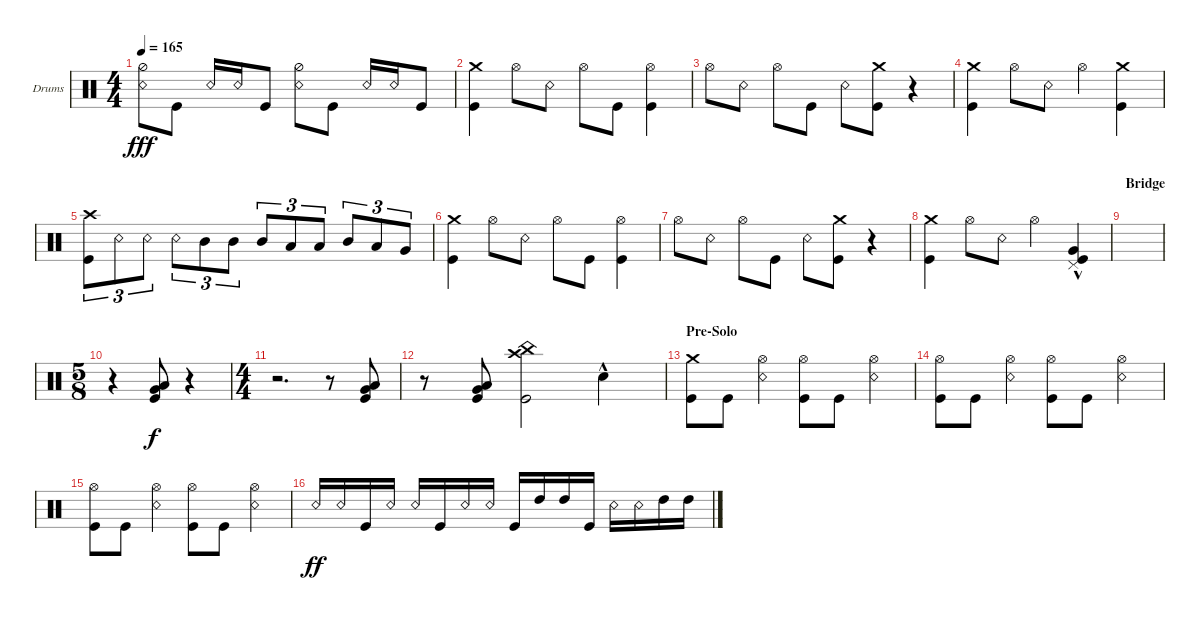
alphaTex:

\defaultSystemsLayout 4
\bracketExtendMode groupsimilarinstruments
\firstSystemTrackNameOrientation horizontal
\otherSystemsTrackNameOrientation horizontal
\track ("Drums" "Drums") {instrument percussion}
\staff {score}
\articulation defaults
\ts (4 4)
\tempo 165
\clef neutral
\ks c
("Hi-Hat (half)" "Snare (rim shot)").8{dy fff} "Kick (hit)".8 "Snare (rim shot)".16 "Snare (rim shot)".16 "Kick (hit)".8 ("Hi-Hat (half)" "Snare (rim shot)").8 "Kick (hit)".8 "Snare (rim shot)".16 "Snare (rim shot)".16 "Kick (hit)".8 |
("Kick (hit)" "Crash medium (hit)").4 "Hi-Hat (open)".8 "Snare (rim shot)".8 "Hi-Hat (open)".8 "Kick (hit)".8 ("Kick (hit)" "Hi-Hat (open)").4 |
"Hi-Hat (open)".8 "Snare (rim shot)".8 "Hi-Hat (open)".8 "Kick (hit)".8 "Snare (rim shot)".8 ("Crash medium (hit)" "Kick (hit)").8 r.4 |
("Kick (hit)" "Crash medium (hit)").4 "Hi-Hat (open)".8 "Snare (rim shot)".8 "Hi-Hat (open)".4 ("Kick (hit)" "Crash medium (hit)").4 |
("Crash high (hit)" "Kick (hit)").8{tu (3 2)} "Snare (rim shot)".8{tu (3 2)} "Snare (rim shot)".8{tu (3 2)} "Snare (rim shot)".8{tu (3 2)} "Mid Tom (hit)".8{tu (3 2)} "Mid Tom (hit)".8{tu (3 2)} "Mid Tom (hit)".8{tu (3 2)} "Low Tom (hit)".8{tu (3 2)} "Low Tom (hit)".8{tu (3 2)} "Mid Tom (hit)".8{tu (3 2)} "Low Tom (hit)".8{tu (3 2)} "Very Low Tom (hit)".8{tu (3 2)} |
("Kick (hit)" "Crash medium (hit)").4 "Hi-Hat (open)".8 "Snare (rim shot)".8 "Hi-Hat (open)".8 "Kick (hit)".8 ("Kick (hit)" "Hi-Hat (open)").4 |
"Hi-Hat (open)".8 "Snare (rim shot)".8 "Hi-Hat (open)".8 "Kick (hit)".8 "Snare (rim shot)".8 ("Crash medium (hit)" "Kick (hit)").8 r.4 |
("Kick (hit)" "Crash medium (hit)").4 "Hi-Hat (open)".8 "Snare (rim shot)".8 "Hi-Hat (open)".4 ("Kick (hit)"{hac} "Pedal Hi-Hat (hit)" "Very Low Tom (hit)").4 |
\section ("" "Bridge")
|
\ts (5 8)
r.4 ("Kick (hit)" "Very Low Tom (hit)" "Low Tom (hit)").8{dy f} r.4 |
\ts (4 4)
r.2{d} r.8 ("Kick (hit)" "Very Low Tom (hit)" "Low Tom (hit)").8 |
r.8 ("Kick (hit)" "Very Low Tom (hit)" "Low Tom (hit)").8 ("Kick (hit)" "Crash high (hit)" "China (hit)").2 "Snare (hit) 2"{hac}.4 |
\section ("" "Pre-Solo")
("Kick (hit)" "Crash medium (hit)").8 "Kick (hit)".8 ("Snare (rim shot)" "Hi-Hat (open)").4 ("Hi-Hat (open)" "Kick (hit)").8 "Kick (hit)".8 ("Snare (rim shot)" "Hi-Hat (open)").4 |
("Hi-Hat (open)" "Kick (hit)").8 "Kick (hit)".8 ("Snare (rim shot)" "Hi-Hat (open)").4 ("Hi-Hat (open)" "Kick (hit)").8 "Kick (hit)".8 ("Snare (rim shot)" "Hi-Hat (open)").4 |
("Hi-Hat (open)" "Kick (hit)").8 "Kick (hit)".8 ("Snare (rim shot)" "Hi-Hat (open)").4 ("Hi-Hat (open)" "Kick (hit)").8 "Kick (hit)".8 ("Snare (rim shot)" "Hi-Hat (open)").4 |
"Snare (rim shot)".16{dy ff} "Snare (rim shot)".16 "Kick (hit)".16 "Snare (rim shot)".16 "Snare (rim shot)".16 "Kick (hit)".16 "Snare (rim shot)".16 "Snare (rim shot)".16 "Kick (hit)".16 "High Tom (hit)".16 "High Tom (hit)".16 "Kick (hit)".16 "Snare (rim shot)".16 "Snare (rim shot)".16 "High Tom (hit)".16 "High Tom (hit)".16
